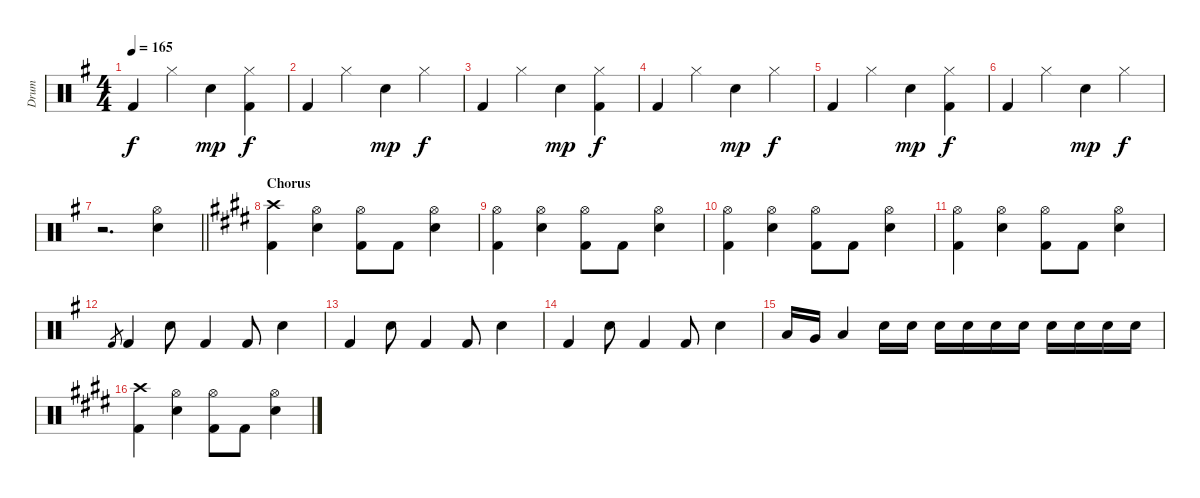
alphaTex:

\track ("Drum" "Drum") {instrument percussion}
\staff {score}
\articulation defaults
\ts (4 4)
\tempo 165
\clef neutral
\ks g "Kick (hit) 2".4{dy f} "Hi-Hat (closed)".4 "Electric Snare (hit)".4{dy mp}
("Hi-Hat (closed)" "Kick (hit) 2").4{dy f} |
"Kick (hit) 2".4 "Hi-Hat (closed)".4 "Electric Snare (hit)".4{dy mp} "Hi-Hat (closed)".4{dy f} |
"Kick (hit) 2".4 "Hi-Hat (closed)".4 "Electric Snare (hit)".4{dy mp} ("Hi-Hat (closed)" "Kick (hit) 2").4{dy f} |
"Kick (hit) 2".4 "Hi-Hat (closed)".4 "Electric Snare (hit)".4{dy mp} "Hi-Hat (closed)".4{dy f} |
"Kick (hit) 2".4 "Hi-Hat (closed)".4 "Electric Snare (hit)".4{dy mp} ("Hi-Hat (closed)" "Kick (hit) 2").4{dy f} |
"Kick (hit) 2".4 "Hi-Hat (closed)".4 "Electric Snare (hit)".4{dy mp} "Hi-Hat (closed)".4{dy f} |
\barLineRight lightlight
r.2{d} ("Hi-Hat (open)" "Electric Snare (hit)").4 |
\section ("" "Chorus")
\ks e
("Crash high (hit)" "Kick (hit) 2").4 ("Hi-Hat (open)" "Electric Snare (hit)").4 ("Hi-Hat (open)" "Kick (hit) 2").8 "Kick (hit) 2".8 ("Hi-Hat (open)" "Electric Snare (hit)").4 |
("Hi-Hat (open)" "Kick (hit) 2").4 ("Hi-Hat (open)" "Electric Snare (hit)").4 ("Hi-Hat (open)" "Kick (hit) 2").8 "Kick (hit) 2".8 ("Hi-Hat (open)" "Electric Snare (hit)").4 |
("Hi-Hat (open)" "Kick (hit) 2").4 ("Hi-Hat (open)" "Electric Snare (hit)").4 ("Hi-Hat (open)" "Kick (hit) 2").8 "Kick (hit) 2".8 ("Hi-Hat (open)" "Electric Snare (hit)").4 |
("Hi-Hat (open)" "Kick (hit) 2").4 ("Hi-Hat (open)" "Electric Snare (hit)").4 ("Hi-Hat (open)" "Kick (hit) 2").8 "Kick (hit) 2".8 ("Hi-Hat (open)" "Electric Snare (hit)").4 |
\ks g "Kick (hit) 2".8{gr} "Kick (hit) 2".4 "Electric Snare (hit)".8 "Kick (hit) 2".4 "Kick (hit) 2".8 "Electric Snare (hit)".4
|
"Kick (hit) 2".4 "Electric Snare (hit)".8 "Kick (hit) 2".4 "Kick (hit) 2".8 "Electric Snare (hit)".4 |
"Kick (hit) 2".4 "Electric Snare (hit)".8 "Kick (hit) 2".4 "Kick (hit) 2".8 "Electric Snare (hit)".4 |
"Low Tom (hit)".16 "Very Low Tom (hit)".16 "Low Floor Tom (hit)".4 "Electric Snare (hit)".16 "Electric Snare (hit)".16 "Electric Snare (hit)".16 "Electric Snare (hit)".16 "Electric Snare (hit)".16 "Electric Snare (hit)".16 "Electric Snare (hit)".16 "Electric Snare (hit)".16 "Electric Snare (hit)".16 "Electric Snare (hit)".16 |
\ks e
("Crash high (hit)" "Kick (hit) 2").4 ("Hi-Hat (open)" "Electric Snare (hit)").4 ("Hi-Hat (open)" "Kick (hit) 2").8 "Kick (hit) 2".8 ("Hi-Hat (open)" "Electric Snare (hit)").4
